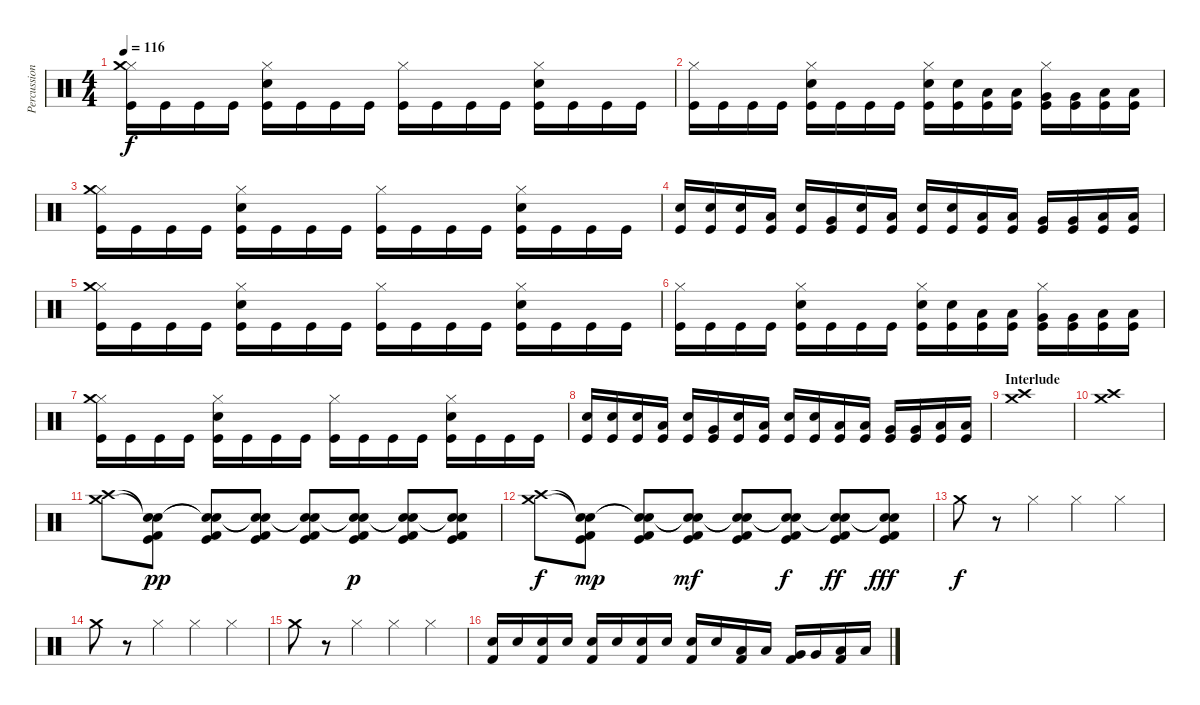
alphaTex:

\track ("Percussion" "Percussion") {instrument percussion}
\staff {score}
\articulation defaults
\ts (4 4)
\tempo 116
\clef neutral
\ks c
("Hi-Hat (closed)" "Crash medium (hit)" "Kick (hit)").16{dy f} "Kick (hit)".16 "Kick (hit)".16 "Kick (hit)".16 ("Hi-Hat (closed)" "Snare (hit) 2" "Kick (hit)").16 "Kick (hit)".16 "Kick (hit)".16 "Kick (hit)".16 ("Hi-Hat (closed)" "Kick (hit)").16 "Kick (hit)".16 "Kick (hit)".16 "Kick (hit)".16 ("Hi-Hat (closed)" "Snare (hit) 2" "Kick (hit)").16 "Kick (hit)".16 "Kick (hit)".16 "Kick (hit)".16 |
("Hi-Hat (closed)" "Kick (hit)").16 "Kick (hit)".16 "Kick (hit)".16 "Kick (hit)".16 ("Hi-Hat (closed)" "Snare (hit) 2" "Kick (hit)").16 "Kick (hit)".16 "Kick (hit)".16 "Kick (hit)".16 ("Hi-Hat (closed)" "Snare (hit) 2" "Kick (hit)").16 ("Snare (hit) 2" "Kick (hit)").16 ("Low Tom (hit)" "Kick (hit)").16 ("Low Tom (hit)" "Kick (hit)").16 ("Hi-Hat (closed)" "Very Low Tom (hit)" "Kick (hit)").16 ("Very Low Tom (hit)" "Kick (hit)").16 ("Low Floor Tom (hit)" "Kick (hit)").16 ("Low Floor Tom (hit)" "Kick (hit)").16 |
("Hi-Hat (closed)" "Crash medium (hit)" "Kick (hit)").16 "Kick (hit)".16 "Kick (hit)".16 "Kick (hit)".16 ("Hi-Hat (closed)" "Snare (hit) 2" "Kick (hit)").16 "Kick (hit)".16 "Kick (hit)".16 "Kick (hit)".16 ("Hi-Hat (closed)" "Kick (hit)").16 "Kick (hit)".16 "Kick (hit)".16 "Kick (hit)".16 ("Hi-Hat (closed)" "Snare (hit) 2" "Kick (hit)").16 "Kick (hit)".16 "Kick (hit)".16 "Kick (hit)".16 |
("Snare (hit) 2" "Kick (hit)").16 ("Snare (hit) 2" "Kick (hit)").16 ("Snare (hit) 2" "Kick (hit)").16 ("Low Tom (hit)" "Kick (hit)").16 ("Snare (hit) 2" "Kick (hit)").16 ("Very Low Tom (hit)" "Kick (hit)").16 ("Snare (hit) 2" "Kick (hit)").16 ("Low Floor Tom (hit)" "Kick (hit)").16 ("Snare (hit) 2" "Kick (hit)").16 ("Snare (hit) 2" "Kick (hit)").16 ("Low Tom (hit)" "Kick (hit)").16 ("Low Tom (hit)" "Kick (hit)").16 ("Very Low Tom (hit)" "Kick (hit)").16 ("Very Low Tom (hit)" "Kick (hit)").16 ("Low Floor Tom (hit)" "Kick (hit)").16 ("Low Floor Tom (hit)" "Kick (hit)").16 |
("Hi-Hat (closed)" "Crash medium (hit)" "Kick (hit)").16 "Kick (hit)".16 "Kick (hit)".16 "Kick (hit)".16 ("Hi-Hat (closed)" "Snare (hit) 2" "Kick (hit)").16 "Kick (hit)".16 "Kick (hit)".16 "Kick (hit)".16 ("Hi-Hat (closed)" "Kick (hit)").16 "Kick (hit)".16 "Kick (hit)".16 "Kick (hit)".16 ("Hi-Hat (closed)" "Snare (hit) 2" "Kick (hit)").16 "Kick (hit)".16 "Kick (hit)".16 "Kick (hit)".16 |
("Hi-Hat (closed)" "Kick (hit)").16 "Kick (hit)".16 "Kick (hit)".16 "Kick (hit)".16 ("Hi-Hat (closed)" "Snare (hit) 2" "Kick (hit)").16 "Kick (hit)".16 "Kick (hit)".16 "Kick (hit)".16 ("Hi-Hat (closed)" "Snare (hit) 2" "Kick (hit)").16 ("Snare (hit) 2" "Kick (hit)").16 ("Low Tom (hit)" "Kick (hit)").16 ("Low Tom (hit)" "Kick (hit)").16 ("Hi-Hat (closed)" "Very Low Tom (hit)" "Kick (hit)").16 ("Very Low Tom (hit)" "Kick (hit)").16 ("Low Floor Tom (hit)" "Kick (hit)").16 ("Low Floor Tom (hit)" "Kick (hit)").16 |
("Hi-Hat (closed)" "Crash medium (hit)" "Kick (hit)").16 "Kick (hit)".16 "Kick (hit)".16 "Kick (hit)".16 ("Hi-Hat (closed)" "Snare (hit) 2" "Kick (hit)").16 "Kick (hit)".16 "Kick (hit)".16 "Kick (hit)".16 ("Hi-Hat (closed)" "Kick (hit)").16 "Kick (hit)".16 "Kick (hit)".16 "Kick (hit)".16 ("Hi-Hat (closed)" "Snare (hit) 2" "Kick (hit)").16 "Kick (hit)".16 "Kick (hit)".16 "Kick (hit)".16 |
("Snare (hit) 2" "Kick (hit)").16 ("Snare (hit) 2" "Kick (hit)").16 ("Snare (hit) 2" "Kick (hit)").16 ("Low Tom (hit)" "Kick (hit)").16 ("Snare (hit) 2" "Kick (hit)").16 ("Very Low Tom (hit)" "Kick (hit)").16 ("Snare (hit) 2" "Kick (hit)").16 ("Low Floor Tom (hit)" "Kick (hit)").16 ("Snare (hit) 2" "Kick (hit)").16 ("Snare (hit) 2" "Kick (hit)").16 ("Low Tom (hit)" "Kick (hit)").16 ("Low Tom (hit)" "Kick (hit)").16 ("Very Low Tom (hit)" "Kick (hit)").16 ("Very Low Tom (hit)" "Kick (hit)").16 ("Low Floor Tom (hit)" "Kick (hit)").16 ("Low Floor Tom (hit)" "Kick (hit)").16 |
\section ("" "Interlude")
("Crash medium (hit)" "Crash high (hit)").1 |
("Crash medium (hit)" "Crash high (hit)").1 |
("Crash medium (hit)" "Crash high (hit)").8 ("Snare (hit)"{t} "Snare (hit)"{t} "Kick (hit)" "Kick (hit) 2").8{dy pp} ("Snare (hit)"{t} "Snare (hit)"{t} "Kick (hit)" "Kick (hit) 2").8 ("Snare (hit)"{t} "Snare (hit)"{t} "Kick (hit)" "Kick (hit) 2").8 ("Snare (hit)"{t} "Snare (hit)"{t} "Kick (hit)" "Kick (hit) 2").8 ("Snare (hit)"{t} "Snare (hit)"{t} "Kick (hit)" "Kick (hit) 2").8{dy p} ("Snare (hit)"{t} "Snare (hit)"{t} "Kick (hit)" "Kick (hit) 2").8 ("Snare (hit)"{t} "Snare (hit)"{t} "Kick (hit)" "Kick (hit) 2").8 |
("Crash medium (hit)" "Crash high (hit)").8{dy f} ("Snare (hit)"{t} "Snare (hit)"{t} "Kick (hit)" "Kick (hit) 2").8{dy mp} ("Snare (hit)"{t} "Snare (hit)"{t} "Kick (hit)" "Kick (hit) 2").8 ("Snare (hit)"{t} "Snare (hit)"{t} "Kick (hit)" "Kick (hit) 2").8{dy mf} ("Snare (hit)"{t} "Snare (hit)"{t} "Kick (hit)" "Kick (hit) 2").8 ("Snare (hit)"{t} "Snare (hit)"{t} "Kick (hit)" "Kick (hit) 2").8{dy f} ("Snare (hit)"{t} "Snare (hit)"{t} "Kick (hit)" "Kick (hit) 2").8{dy ff} ("Snare (hit)"{t} "Snare (hit)"{t} "Kick (hit)" "Kick (hit) 2").8{dy fff} |
"Crash medium (hit)".8{dy f} r.8 "Hi-Hat (closed)".4 "Hi-Hat (closed)".4 "Hi-Hat (closed)".4 |
"Crash medium (hit)".8 r.8 "Hi-Hat (closed)".4 "Hi-Hat (closed)".4 "Hi-Hat (closed)".4 |
"Crash medium (hit)".8 r.8 "Hi-Hat (closed)".4 "Hi-Hat (closed)".4 "Hi-Hat (closed)".4 |
("Snare (hit) 2" "Kick (hit) 2").16 "Snare (hit) 2".16 ("Snare (hit) 2" "Kick (hit) 2").16 "Snare (hit) 2".16 ("Snare (hit) 2" "Kick (hit) 2").16 "Snare (hit) 2".16 ("Snare (hit) 2" "Kick (hit) 2").16 "Snare (hit) 2".16 ("Snare (hit) 2" "Kick (hit) 2").16 "Snare (hit) 2".16 ("Low Tom (hit)" "Kick (hit) 2").16 "Low Tom (hit)".16 ("Very Low Tom (hit)" "Kick (hit) 2").16 "Very Low Tom (hit)".16 ("Low Floor Tom (hit)" "Kick (hit) 2").16 "Low Floor Tom (hit)".16
